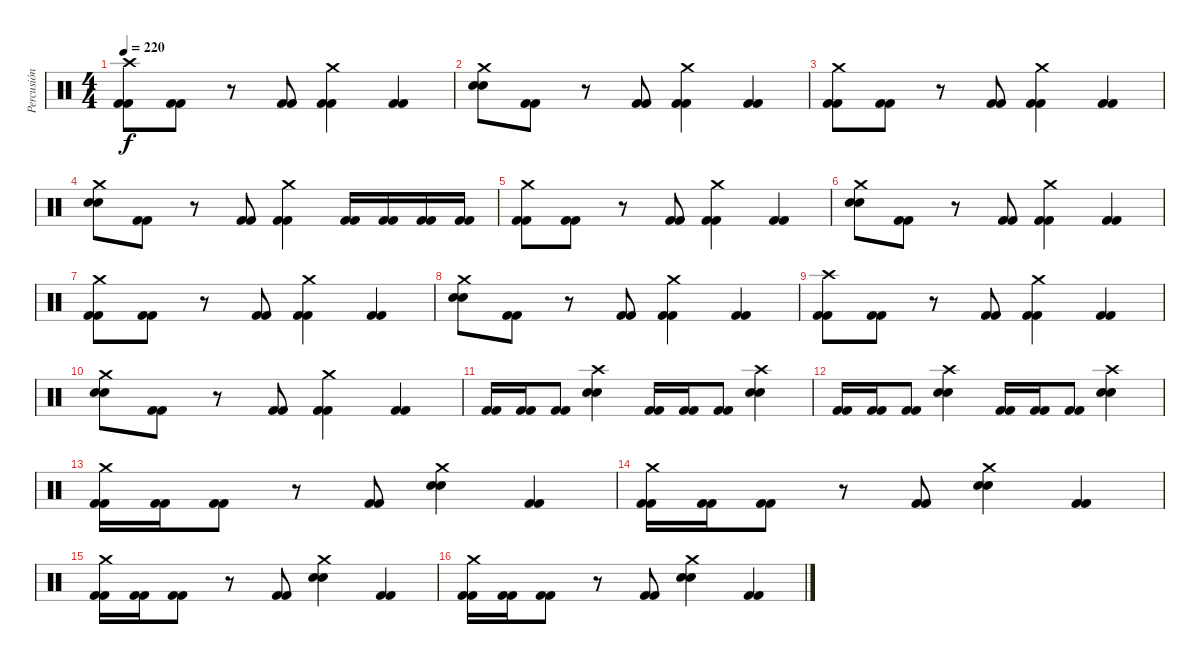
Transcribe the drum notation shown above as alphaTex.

\track ("Percusión" "Percusión") {instrument percussion}
\staff {score}
\articulation defaults
\ts (4 4)
\tempo 220
\clef neutral
\ks c
("Kick (hit) 2" "Kick (hit) 2" "Crash high (hit)").8{dy f} ("Kick (hit) 2" "Kick (hit) 2").8 r.8 ("Kick (hit) 2" "Kick (hit) 2").8 ("Kick (hit) 2" "Kick (hit) 2" "Crash medium (hit)").4 ("Kick (hit) 2" "Kick (hit) 2").4 |
("Electric Snare (hit)" "Electric Snare (hit)" "Crash medium (hit)").8 ("Kick (hit) 2" "Kick (hit) 2").8 r.8 ("Kick (hit) 2" "Kick (hit) 2").8 ("Kick (hit) 2" "Kick (hit) 2" "Crash medium (hit)").4 ("Kick (hit) 2" "Kick (hit) 2").4 |
("Kick (hit) 2" "Kick (hit) 2" "Crash medium (hit)").8 ("Kick (hit) 2" "Kick (hit) 2").8 r.8 ("Kick (hit) 2" "Kick (hit) 2").8 ("Kick (hit) 2" "Kick (hit) 2" "Crash medium (hit)").4 ("Kick (hit) 2" "Kick (hit) 2").4 |
("Electric Snare (hit)" "Electric Snare (hit)" "Crash medium (hit)").8 ("Kick (hit) 2" "Kick (hit) 2").8 r.8 ("Kick (hit) 2" "Kick (hit) 2").8 ("Kick (hit) 2" "Kick (hit) 2" "Crash medium (hit)").4 ("Kick (hit) 2" "Kick (hit) 2").16 ("Kick (hit) 2" "Kick (hit) 2").16 ("Kick (hit) 2" "Kick (hit) 2").16 ("Kick (hit) 2" "Kick (hit) 2").16 |
("Kick (hit) 2" "Kick (hit) 2" "Crash medium (hit)").8 ("Kick (hit) 2" "Kick (hit) 2").8 r.8 ("Kick (hit) 2" "Kick (hit) 2").8 ("Kick (hit) 2" "Kick (hit) 2" "Crash medium (hit)").4 ("Kick (hit) 2" "Kick (hit) 2").4 |
("Electric Snare (hit)" "Electric Snare (hit)" "Crash medium (hit)").8 ("Kick (hit) 2" "Kick (hit) 2").8 r.8 ("Kick (hit) 2" "Kick (hit) 2").8 ("Kick (hit) 2" "Kick (hit) 2" "Crash medium (hit)").4 ("Kick (hit) 2" "Kick (hit) 2").4 |
("Kick (hit) 2" "Kick (hit) 2" "Crash medium (hit)").8 ("Kick (hit) 2" "Kick (hit) 2").8 r.8 ("Kick (hit) 2" "Kick (hit) 2").8 ("Kick (hit) 2" "Kick (hit) 2" "Crash medium (hit)").4 ("Kick (hit) 2" "Kick (hit) 2").4 |
("Electric Snare (hit)" "Electric Snare (hit)" "Crash medium (hit)").8 ("Kick (hit) 2" "Kick (hit) 2").8 r.8 ("Kick (hit) 2" "Kick (hit) 2").8 ("Kick (hit) 2" "Kick (hit) 2" "Crash medium (hit)").4 ("Kick (hit) 2" "Kick (hit) 2").4 |
("Kick (hit) 2" "Kick (hit) 2" "Crash high (hit)").8 ("Kick (hit) 2" "Kick (hit) 2").8 r.8 ("Kick (hit) 2" "Kick (hit) 2").8 ("Kick (hit) 2" "Kick (hit) 2" "Crash medium (hit)").4 ("Kick (hit) 2" "Kick (hit) 2").4 |
("Electric Snare (hit)" "Electric Snare (hit)" "Crash medium (hit)").8 ("Kick (hit) 2" "Kick (hit) 2").8 r.8 ("Kick (hit) 2" "Kick (hit) 2").8 ("Kick (hit) 2" "Kick (hit) 2" "Crash medium (hit)").4 ("Kick (hit) 2" "Kick (hit) 2").4 |
("Kick (hit) 2" "Kick (hit) 2").16 ("Kick (hit) 2" "Kick (hit) 2").16 ("Kick (hit) 2" "Kick (hit) 2").8 ("Electric Snare (hit)" "Electric Snare (hit)" "Crash high (hit)").4 ("Kick (hit) 2" "Kick (hit) 2").16 ("Kick (hit) 2" "Kick (hit) 2").16 ("Kick (hit) 2" "Kick (hit) 2").8 ("Electric Snare (hit)" "Electric Snare (hit)" "Crash high (hit)").4 |
("Kick (hit) 2" "Kick (hit) 2").16 ("Kick (hit) 2" "Kick (hit) 2").16 ("Kick (hit) 2" "Kick (hit) 2").8 ("Electric Snare (hit)" "Electric Snare (hit)" "Crash high (hit)").4 ("Kick (hit) 2" "Kick (hit) 2").16 ("Kick (hit) 2" "Kick (hit) 2").16 ("Kick (hit) 2" "Kick (hit) 2").8 ("Electric Snare (hit)" "Electric Snare (hit)" "Crash high (hit)").4 |
("Kick (hit) 2" "Kick (hit) 2" "Crash medium (hit)").16 ("Kick (hit) 2" "Kick (hit) 2").16 ("Kick (hit) 2" "Kick (hit) 2").8 r.8 ("Kick (hit) 2" "Kick (hit) 2").8 ("Electric Snare (hit)" "Electric Snare (hit)" "Crash medium (hit)").4 ("Kick (hit) 2" "Kick (hit) 2").4 |
("Kick (hit) 2" "Kick (hit) 2" "Crash medium (hit)").16 ("Kick (hit) 2" "Kick (hit) 2").16 ("Kick (hit) 2" "Kick (hit) 2").8 r.8 ("Kick (hit) 2" "Kick (hit) 2").8 ("Electric Snare (hit)" "Electric Snare (hit)" "Crash medium (hit)").4 ("Kick (hit) 2" "Kick (hit) 2").4 |
("Kick (hit) 2" "Kick (hit) 2" "Crash medium (hit)").16 ("Kick (hit) 2" "Kick (hit) 2").16 ("Kick (hit) 2" "Kick (hit) 2").8 r.8 ("Kick (hit) 2" "Kick (hit) 2").8 ("Electric Snare (hit)" "Electric Snare (hit)" "Crash medium (hit)").4 ("Kick (hit) 2" "Kick (hit) 2").4 |
("Kick (hit) 2" "Kick (hit) 2" "Crash medium (hit)").16 ("Kick (hit) 2" "Kick (hit) 2").16 ("Kick (hit) 2" "Kick (hit) 2").8 r.8 ("Kick (hit) 2" "Kick (hit) 2").8 ("Electric Snare (hit)" "Electric Snare (hit)" "Crash medium (hit)").4 ("Kick (hit) 2" "Kick (hit) 2").4
